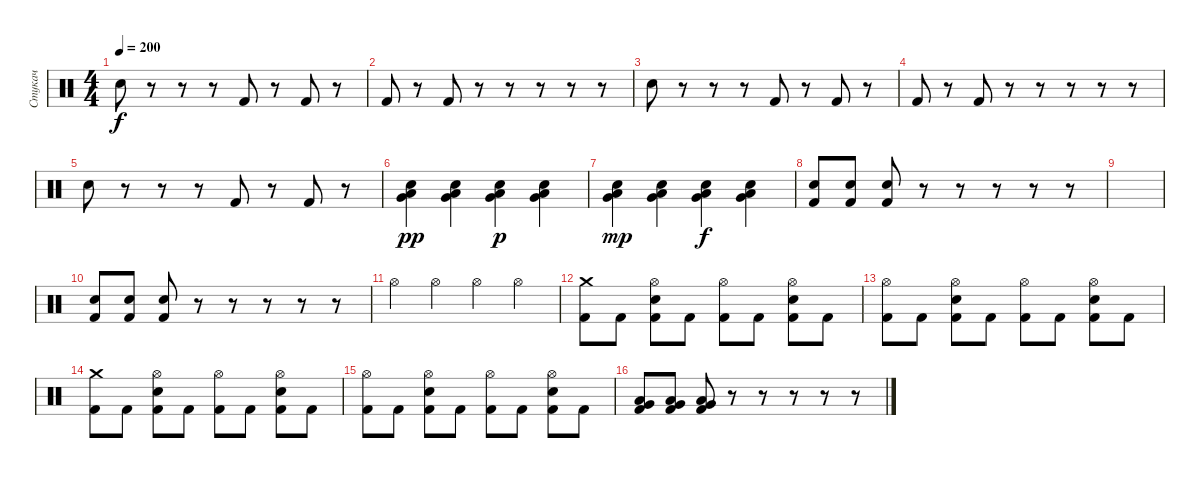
\track ("Стукач" "Стукач") {instrument percussion}
\staff {score}
\articulation defaults
\ts (4 4)
\tempo 200
\clef neutral
\ks c "Electric Snare (hit)".8{dy f}
r.8 r.8 r.8 "Kick (hit) 2".8 r.8 "Kick (hit) 2".8 r.8 |
"Kick (hit) 2".8 r.8 "Kick (hit) 2".8 r.8 r.8 r.8 r.8 r.8 |
"Electric Snare (hit)".8 r.8 r.8 r.8 "Kick (hit) 2".8 r.8 "Kick (hit) 2".8 r.8 |
"Kick (hit) 2".8 r.8 "Kick (hit) 2".8 r.8 r.8 r.8 r.8 r.8 |
"Electric Snare (hit)".8 r.8 r.8 r.8 "Kick (hit) 2".8 r.8 "Kick (hit) 2".8 r.8 |
("Very Low Tom (hit)" "Electric Snare (hit)" "Low Tom (hit)").4{dy pp} ("Very Low Tom (hit)" "Electric Snare (hit)" "Low Tom (hit)").4 ("Very Low Tom (hit)" "Electric Snare (hit)" "Low Tom (hit)").4{dy p} ("Very Low Tom (hit)" "Electric Snare (hit)" "Low Tom (hit)").4 |
("Very Low Tom (hit)" "Electric Snare (hit)" "Low Tom (hit)").4{dy mp} ("Very Low Tom (hit)" "Electric Snare (hit)" "Low Tom (hit)").4 ("Very Low Tom (hit)" "Electric Snare (hit)" "Low Tom (hit)").4{dy f} ("Very Low Tom (hit)" "Electric Snare (hit)" "Low Tom (hit)").4 |
("Electric Snare (hit)" "Kick (hit) 2").8 ("Electric Snare (hit)" "Kick (hit) 2").8 ("Electric Snare (hit)" "Kick (hit) 2").8 r.8 r.8 r.8 r.8 r.8 |
|
("Electric Snare (hit)" "Kick (hit) 2").8 ("Electric Snare (hit)" "Kick (hit) 2").8 ("Electric Snare (hit)" "Kick (hit) 2").8 r.8 r.8 r.8 r.8 r.8 |
"Hi-Hat (open)".4 "Hi-Hat (open)".4 "Hi-Hat (open)".4 "Hi-Hat (open)".4 |
("Crash medium (hit)" "Kick (hit) 2").8 "Kick (hit) 2".8 ("Hi-Hat (open)" "Electric Snare (hit)" "Kick (hit) 2").8 "Kick (hit) 2".8 ("Hi-Hat (open)" "Kick (hit) 2").8 "Kick (hit) 2".8 ("Hi-Hat (open)" "Electric Snare (hit)" "Kick (hit) 2").8 "Kick (hit) 2".8 |
("Hi-Hat (open)" "Kick (hit) 2").8 "Kick (hit) 2".8 ("Hi-Hat (open)" "Electric Snare (hit)" "Kick (hit) 2").8 "Kick (hit) 2".8 ("Hi-Hat (open)" "Kick (hit) 2").8 "Kick (hit) 2".8 ("Hi-Hat (open)" "Electric Snare (hit)" "Kick (hit) 2").8 "Kick (hit) 2".8 |
("Crash medium (hit)" "Kick (hit) 2").8 "Kick (hit) 2".8 ("Hi-Hat (open)" "Electric Snare (hit)" "Kick (hit) 2").8 "Kick (hit) 2".8 ("Hi-Hat (open)" "Kick (hit) 2").8 "Kick (hit) 2".8 ("Hi-Hat (open)" "Electric Snare (hit)" "Kick (hit) 2").8 "Kick (hit) 2".8 |
("Hi-Hat (open)" "Kick (hit) 2").8 "Kick (hit) 2".8 ("Hi-Hat (open)" "Electric Snare (hit)" "Kick (hit) 2").8 "Kick (hit) 2".8 ("Hi-Hat (open)" "Kick (hit) 2").8 "Kick (hit) 2".8 ("Hi-Hat (open)" "Electric Snare (hit)" "Kick (hit) 2").8 "Kick (hit) 2".8 |
("Very Low Tom (hit)" "Low Tom (hit)" "Kick (hit) 2").8 ("Very Low Tom (hit)" "Low Tom (hit)" "Kick (hit) 2").8 ("Very Low Tom (hit)" "Low Tom (hit)" "Kick (hit) 2").8 r.8 r.8 r.8 r.8 r.8
